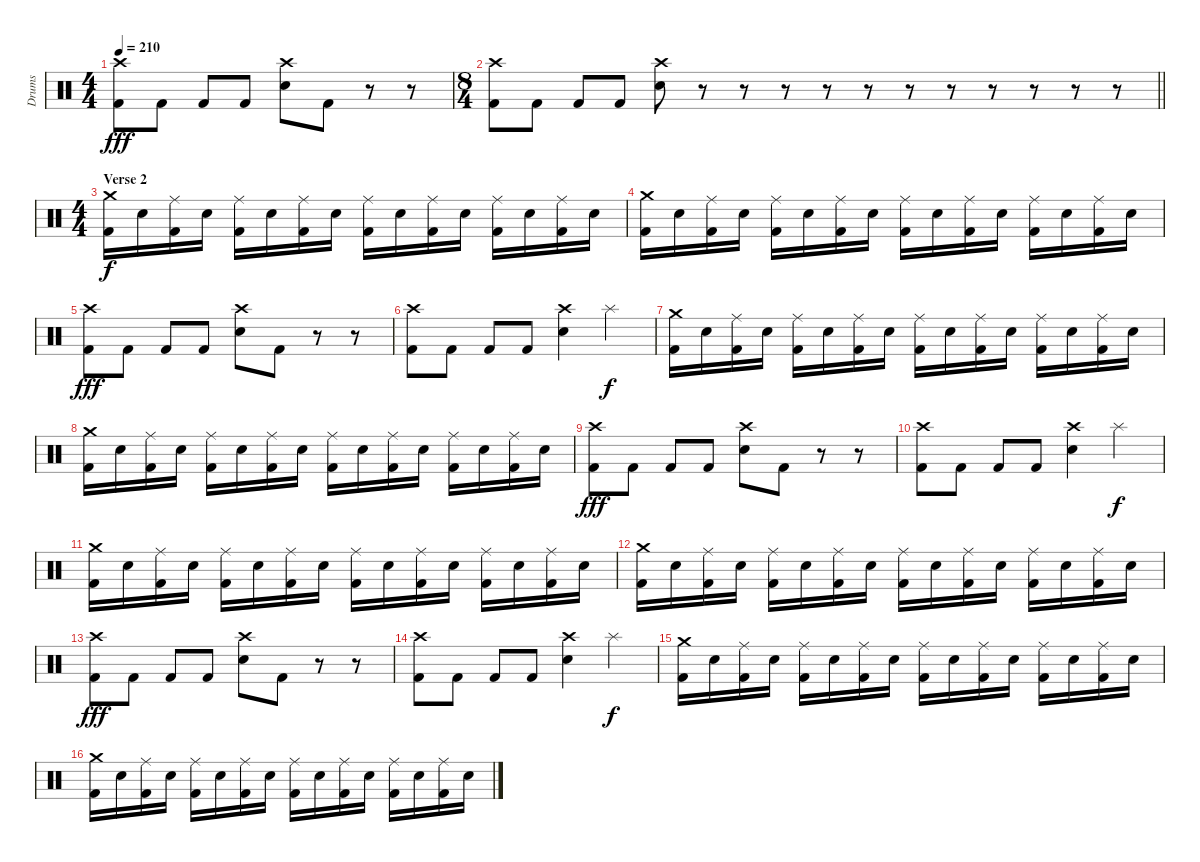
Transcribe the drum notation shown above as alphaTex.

\track ("Drums" "Drums") {instrument percussion}
\staff {score}
\articulation defaults
\ts (4 4)
\tempo 210
\clef neutral
\ks c
("Crash high (hit)" "Kick (hit) 2").8{dy fff} "Kick (hit) 2".8 "Kick (hit) 2".8 "Kick (hit) 2".8 ("Crash high (hit)" "Electric Snare (hit)").8 "Kick (hit) 2".8 r.8 r.8 |
\ts (8 4)
\barLineRight lightlight
("Crash high (hit)" "Kick (hit) 2").8 "Kick (hit) 2".8 "Kick (hit) 2".8 "Kick (hit) 2".8 ("Crash high (hit)" "Electric Snare (hit)").8 r.8 r.8 r.8 r.8 r.8 r.8 r.8 r.8 r.8 r.8 r.8 |
\ts (4 4)
\section ("" "Verse 2")
("Crash medium (hit)" "Kick (hit) 2").16{dy f} "Electric Snare (hit)".16 ("Ride (middle)" "Kick (hit) 2").16 "Electric Snare (hit)".16 ("Ride (middle)" "Kick (hit) 2").16 "Electric Snare (hit)".16 ("Ride (middle)" "Kick (hit) 2").16 "Electric Snare (hit)".16 ("Ride (middle)" "Kick (hit) 2").16 "Electric Snare (hit)".16 ("Ride (middle)" "Kick (hit) 2").16 "Electric Snare (hit)".16 ("Ride (middle)" "Kick (hit) 2").16 "Electric Snare (hit)".16 ("Ride (middle)" "Kick (hit) 2").16 "Electric Snare (hit)".16 |
("Crash medium (hit)" "Kick (hit) 2").16 "Electric Snare (hit)".16 ("Ride (middle)" "Kick (hit) 2").16 "Electric Snare (hit)".16 ("Ride (middle)" "Kick (hit) 2").16 "Electric Snare (hit)".16 ("Ride (middle)" "Kick (hit) 2").16 "Electric Snare (hit)".16 ("Ride (middle)" "Kick (hit) 2").16 "Electric Snare (hit)".16 ("Ride (middle)" "Kick (hit) 2").16 "Electric Snare (hit)".16 ("Ride (middle)" "Kick (hit) 2").16 "Electric Snare (hit)".16 ("Ride (middle)" "Kick (hit) 2").16 "Electric Snare (hit)".16 |
("Crash high (hit)" "Kick (hit) 2").8{dy fff} "Kick (hit) 2".8 "Kick (hit) 2".8 "Kick (hit) 2".8 ("Crash high (hit)" "Electric Snare (hit)").8 "Kick (hit) 2".8 r.8 r.8 |
("Crash high (hit)" "Kick (hit) 2").8 "Kick (hit) 2".8 "Kick (hit) 2".8 "Kick (hit) 2".8 ("Crash high (hit)" "Electric Snare (hit)").4 "Splash (hit)".4{dy f} |
("Crash medium (hit)" "Kick (hit) 2").16 "Electric Snare (hit)".16 ("Ride (middle)" "Kick (hit) 2").16 "Electric Snare (hit)".16 ("Ride (middle)" "Kick (hit) 2").16 "Electric Snare (hit)".16 ("Ride (middle)" "Kick (hit) 2").16 "Electric Snare (hit)".16 ("Ride (middle)" "Kick (hit) 2").16 "Electric Snare (hit)".16 ("Ride (middle)" "Kick (hit) 2").16 "Electric Snare (hit)".16 ("Ride (middle)" "Kick (hit) 2").16 "Electric Snare (hit)".16 ("Ride (middle)" "Kick (hit) 2").16 "Electric Snare (hit)".16 |
("Crash medium (hit)" "Kick (hit) 2").16 "Electric Snare (hit)".16 ("Ride (middle)" "Kick (hit) 2").16 "Electric Snare (hit)".16 ("Ride (middle)" "Kick (hit) 2").16 "Electric Snare (hit)".16 ("Ride (middle)" "Kick (hit) 2").16 "Electric Snare (hit)".16 ("Ride (middle)" "Kick (hit) 2").16 "Electric Snare (hit)".16 ("Ride (middle)" "Kick (hit) 2").16 "Electric Snare (hit)".16 ("Ride (middle)" "Kick (hit) 2").16 "Electric Snare (hit)".16 ("Ride (middle)" "Kick (hit) 2").16 "Electric Snare (hit)".16 |
("Crash high (hit)" "Kick (hit) 2").8{dy fff} "Kick (hit) 2".8 "Kick (hit) 2".8 "Kick (hit) 2".8 ("Crash high (hit)" "Electric Snare (hit)").8 "Kick (hit) 2".8 r.8 r.8 |
("Crash high (hit)" "Kick (hit) 2").8 "Kick (hit) 2".8 "Kick (hit) 2".8 "Kick (hit) 2".8 ("Crash high (hit)" "Electric Snare (hit)").4 "Splash (hit)".4{dy f} |
("Crash medium (hit)" "Kick (hit) 2").16 "Electric Snare (hit)".16 ("Ride (middle)" "Kick (hit) 2").16 "Electric Snare (hit)".16 ("Ride (middle)" "Kick (hit) 2").16 "Electric Snare (hit)".16 ("Ride (middle)" "Kick (hit) 2").16 "Electric Snare (hit)".16 ("Ride (middle)" "Kick (hit) 2").16 "Electric Snare (hit)".16 ("Ride (middle)" "Kick (hit) 2").16 "Electric Snare (hit)".16 ("Ride (middle)" "Kick (hit) 2").16 "Electric Snare (hit)".16 ("Ride (middle)" "Kick (hit) 2").16 "Electric Snare (hit)".16 |
("Crash medium (hit)" "Kick (hit) 2").16 "Electric Snare (hit)".16 ("Ride (middle)" "Kick (hit) 2").16 "Electric Snare (hit)".16 ("Ride (middle)" "Kick (hit) 2").16 "Electric Snare (hit)".16 ("Ride (middle)" "Kick (hit) 2").16 "Electric Snare (hit)".16 ("Ride (middle)" "Kick (hit) 2").16 "Electric Snare (hit)".16 ("Ride (middle)" "Kick (hit) 2").16 "Electric Snare (hit)".16 ("Ride (middle)" "Kick (hit) 2").16 "Electric Snare (hit)".16 ("Ride (middle)" "Kick (hit) 2").16 "Electric Snare (hit)".16 |
("Crash high (hit)" "Kick (hit) 2").8{dy fff} "Kick (hit) 2".8 "Kick (hit) 2".8 "Kick (hit) 2".8 ("Crash high (hit)" "Electric Snare (hit)").8 "Kick (hit) 2".8 r.8 r.8 |
("Crash high (hit)" "Kick (hit) 2").8 "Kick (hit) 2".8 "Kick (hit) 2".8 "Kick (hit) 2".8 ("Crash high (hit)" "Electric Snare (hit)").4 "Splash (hit)".4{dy f} |
("Crash medium (hit)" "Kick (hit) 2").16 "Electric Snare (hit)".16 ("Ride (middle)" "Kick (hit) 2").16 "Electric Snare (hit)".16 ("Ride (middle)" "Kick (hit) 2").16 "Electric Snare (hit)".16 ("Ride (middle)" "Kick (hit) 2").16 "Electric Snare (hit)".16 ("Ride (middle)" "Kick (hit) 2").16 "Electric Snare (hit)".16 ("Ride (middle)" "Kick (hit) 2").16 "Electric Snare (hit)".16 ("Ride (middle)" "Kick (hit) 2").16 "Electric Snare (hit)".16 ("Ride (middle)" "Kick (hit) 2").16 "Electric Snare (hit)".16 |
("Crash medium (hit)" "Kick (hit) 2").16 "Electric Snare (hit)".16 ("Ride (middle)" "Kick (hit) 2").16 "Electric Snare (hit)".16 ("Ride (middle)" "Kick (hit) 2").16 "Electric Snare (hit)".16 ("Ride (middle)" "Kick (hit) 2").16 "Electric Snare (hit)".16 ("Ride (middle)" "Kick (hit) 2").16 "Electric Snare (hit)".16 ("Ride (middle)" "Kick (hit) 2").16 "Electric Snare (hit)".16 ("Ride (middle)" "Kick (hit) 2").16 "Electric Snare (hit)".16 ("Ride (middle)" "Kick (hit) 2").16 "Electric Snare (hit)".16
